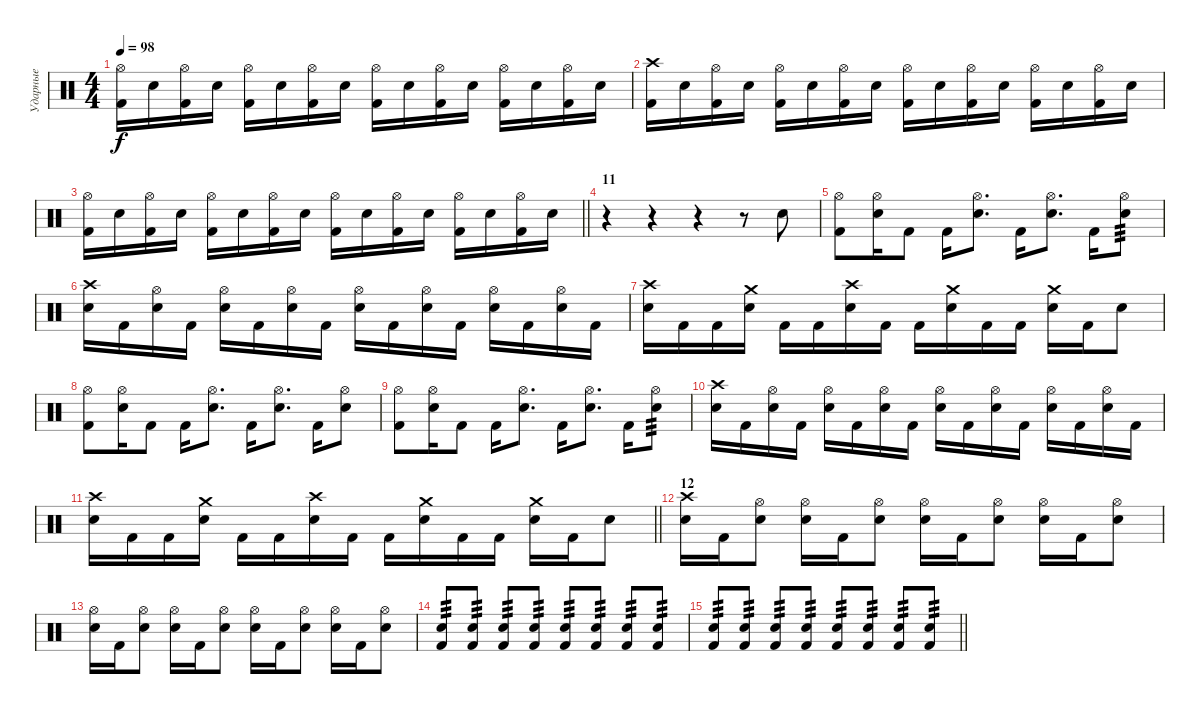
\track ("Ударные" "Ударные") {instrument percussion}
\staff {score}
\articulation defaults
\ts (4 4)
\tempo 98
\clef neutral
\ks c
("Kick (hit) 2" "Hi-Hat (open)").16{dy f} "Electric Snare (hit)".16 ("Kick (hit) 2" "Hi-Hat (open)").16 "Electric Snare (hit)".16 ("Kick (hit) 2" "Hi-Hat (open)").16 "Electric Snare (hit)".16 ("Kick (hit) 2" "Hi-Hat (open)").16 "Electric Snare (hit)".16 ("Kick (hit) 2" "Hi-Hat (open)").16 "Electric Snare (hit)".16 ("Kick (hit) 2" "Hi-Hat (open)").16 "Electric Snare (hit)".16 ("Kick (hit) 2" "Hi-Hat (open)").16 "Electric Snare (hit)".16 ("Kick (hit) 2" "Hi-Hat (open)").16 "Electric Snare (hit)".16 |
("Kick (hit) 2" "Crash high (hit)").16 "Electric Snare (hit)".16 ("Kick (hit) 2" "Hi-Hat (open)").16 "Electric Snare (hit)".16 ("Kick (hit) 2" "Hi-Hat (open)").16 "Electric Snare (hit)".16 ("Kick (hit) 2" "Hi-Hat (open)").16 "Electric Snare (hit)".16 ("Kick (hit) 2" "Hi-Hat (open)").16 "Electric Snare (hit)".16 ("Kick (hit) 2" "Hi-Hat (open)").16 "Electric Snare (hit)".16 ("Kick (hit) 2" "Hi-Hat (open)").16 "Electric Snare (hit)".16 ("Kick (hit) 2" "Hi-Hat (open)").16 "Electric Snare (hit)".16 |
\barLineRight lightlight
("Kick (hit) 2" "Hi-Hat (open)").16 "Electric Snare (hit)".16 ("Kick (hit) 2" "Hi-Hat (open)").16 "Electric Snare (hit)".16 ("Kick (hit) 2" "Hi-Hat (open)").16 "Electric Snare (hit)".16 ("Kick (hit) 2" "Hi-Hat (open)").16 "Electric Snare (hit)".16 ("Kick (hit) 2" "Hi-Hat (open)").16 "Electric Snare (hit)".16 ("Kick (hit) 2" "Hi-Hat (open)").16 "Electric Snare (hit)".16 ("Kick (hit) 2" "Hi-Hat (open)").16 "Electric Snare (hit)".16 ("Kick (hit) 2" "Hi-Hat (open)").16 "Electric Snare (hit)".16 |
\section ("" "11")
r.4 r.4 r.4 r.8 "Electric Snare (hit)".8 |
("Kick (hit) 2" "Hi-Hat (open)").8 ("Electric Snare (hit)" "Hi-Hat (open)").16 "Kick (hit) 2".8 "Kick (hit) 2".16 ("Electric Snare (hit)" "Hi-Hat (open)").8{d} "Kick (hit) 2".16 ("Electric Snare (hit)" "Hi-Hat (open)").8{d} "Kick (hit) 2".16 ("Electric Snare (hit)" "Hi-Hat (open)").8{tp 3} |
("Electric Snare (hit)" "Crash high (hit)").16 "Kick (hit) 2".16 ("Electric Snare (hit)" "Hi-Hat (open)").16 "Kick (hit) 2".16 ("Electric Snare (hit)" "Hi-Hat (open)").16 "Kick (hit) 2".16 ("Electric Snare (hit)" "Hi-Hat (open)").16 "Kick (hit) 2".16 ("Electric Snare (hit)" "Hi-Hat (open)").16 "Kick (hit) 2".16 ("Electric Snare (hit)" "Hi-Hat (open)").16 "Kick (hit) 2".16 ("Electric Snare (hit)" "Hi-Hat (open)").16 "Kick (hit) 2".16 ("Electric Snare (hit)" "Hi-Hat (open)").16 "Kick (hit) 2".16 |
("Electric Snare (hit)" "Crash high (hit)").16 "Kick (hit) 2".16 "Kick (hit) 2".16 ("Electric Snare (hit)" "Crash medium (hit)").16 "Kick (hit) 2".16 "Kick (hit) 2".16 ("Electric Snare (hit)" "Crash high (hit)").16 "Kick (hit) 2".16 "Kick (hit) 2".16 ("Electric Snare (hit)" "Crash medium (hit)").16 "Kick (hit) 2".16 "Kick (hit) 2".16 ("Electric Snare (hit)" "Crash medium (hit)").16 "Kick (hit) 2".16 "Electric Snare (hit)".8 |
("Kick (hit) 2" "Hi-Hat (open)").8 ("Electric Snare (hit)" "Hi-Hat (open)").16 "Kick (hit) 2".8 "Kick (hit) 2".16 ("Electric Snare (hit)" "Hi-Hat (open)").8{d} "Kick (hit) 2".16 ("Electric Snare (hit)" "Hi-Hat (open)").8{d} "Kick (hit) 2".16 ("Electric Snare (hit)" "Hi-Hat (open)").8 |
("Kick (hit) 2" "Hi-Hat (open)").8 ("Electric Snare (hit)" "Hi-Hat (open)").16 "Kick (hit) 2".8 "Kick (hit) 2".16 ("Electric Snare (hit)" "Hi-Hat (open)").8{d} "Kick (hit) 2".16 ("Electric Snare (hit)" "Hi-Hat (open)").8{d} "Kick (hit) 2".16 ("Electric Snare (hit)" "Hi-Hat (open)").8{tp 3} |
("Electric Snare (hit)" "Crash high (hit)").16 "Kick (hit) 2".16 ("Electric Snare (hit)" "Hi-Hat (open)").16 "Kick (hit) 2".16 ("Electric Snare (hit)" "Hi-Hat (open)").16 "Kick (hit) 2".16 ("Electric Snare (hit)" "Hi-Hat (open)").16 "Kick (hit) 2".16 ("Electric Snare (hit)" "Hi-Hat (open)").16 "Kick (hit) 2".16 ("Electric Snare (hit)" "Hi-Hat (open)").16 "Kick (hit) 2".16 ("Electric Snare (hit)" "Hi-Hat (open)").16 "Kick (hit) 2".16 ("Electric Snare (hit)" "Hi-Hat (open)").16 "Kick (hit) 2".16 |
\barLineRight lightlight
("Electric Snare (hit)" "Crash high (hit)").16 "Kick (hit) 2".16 "Kick (hit) 2".16 ("Electric Snare (hit)" "Crash medium (hit)").16 "Kick (hit) 2".16 "Kick (hit) 2".16 ("Electric Snare (hit)" "Crash high (hit)").16 "Kick (hit) 2".16 "Kick (hit) 2".16 ("Electric Snare (hit)" "Crash medium (hit)").16 "Kick (hit) 2".16 "Kick (hit) 2".16 ("Electric Snare (hit)" "Crash medium (hit)").16 "Kick (hit) 2".16 "Electric Snare (hit)".8 |
\section ("" "12")
("Electric Snare (hit)" "Crash high (hit)").16 "Kick (hit) 2".16 ("Electric Snare (hit)" "Hi-Hat (open)").8 ("Electric Snare (hit)" "Hi-Hat (open)").16 "Kick (hit) 2".16 ("Electric Snare (hit)" "Hi-Hat (open)").8 ("Electric Snare (hit)" "Hi-Hat (open)").16 "Kick (hit) 2".16 ("Electric Snare (hit)" "Hi-Hat (open)").8 ("Electric Snare (hit)" "Hi-Hat (open)").16 "Kick (hit) 2".16 ("Electric Snare (hit)" "Hi-Hat (open)").8 |
("Electric Snare (hit)" "Hi-Hat (open)").16 "Kick (hit) 2".16 ("Electric Snare (hit)" "Hi-Hat (open)").8 ("Electric Snare (hit)" "Hi-Hat (open)").16 "Kick (hit) 2".16 ("Electric Snare (hit)" "Hi-Hat (open)").8 ("Electric Snare (hit)" "Hi-Hat (open)").16 "Kick (hit) 2".16 ("Electric Snare (hit)" "Hi-Hat (open)").8 ("Electric Snare (hit)" "Hi-Hat (open)").16 "Kick (hit) 2".16 ("Electric Snare (hit)" "Hi-Hat (open)").8 |
("Electric Snare (hit)" "Kick (hit) 2").8{tp 3} ("Electric Snare (hit)" "Kick (hit) 2").8{tp 3} ("Electric Snare (hit)" "Kick (hit) 2").8{tp 3} ("Electric Snare (hit)" "Kick (hit) 2").8{tp 3} ("Electric Snare (hit)" "Kick (hit) 2").8{tp 3} ("Electric Snare (hit)" "Kick (hit) 2").8{tp 3} ("Electric Snare (hit)" "Kick (hit) 2").8{tp 3} ("Electric Snare (hit)" "Kick (hit) 2").8{tp 3} |
\barLineRight lightlight
("Electric Snare (hit)" "Kick (hit) 2").8{tp 3} ("Electric Snare (hit)" "Kick (hit) 2").8{tp 3} ("Electric Snare (hit)" "Kick (hit) 2").8{tp 3} ("Electric Snare (hit)" "Kick (hit) 2").8{tp 3} ("Electric Snare (hit)" "Kick (hit) 2").8{tp 3} ("Electric Snare (hit)" "Kick (hit) 2").8{tp 3} ("Electric Snare (hit)" "Kick (hit) 2").8{tp 3} ("Electric Snare (hit)" "Kick (hit) 2").8{tp 3}
